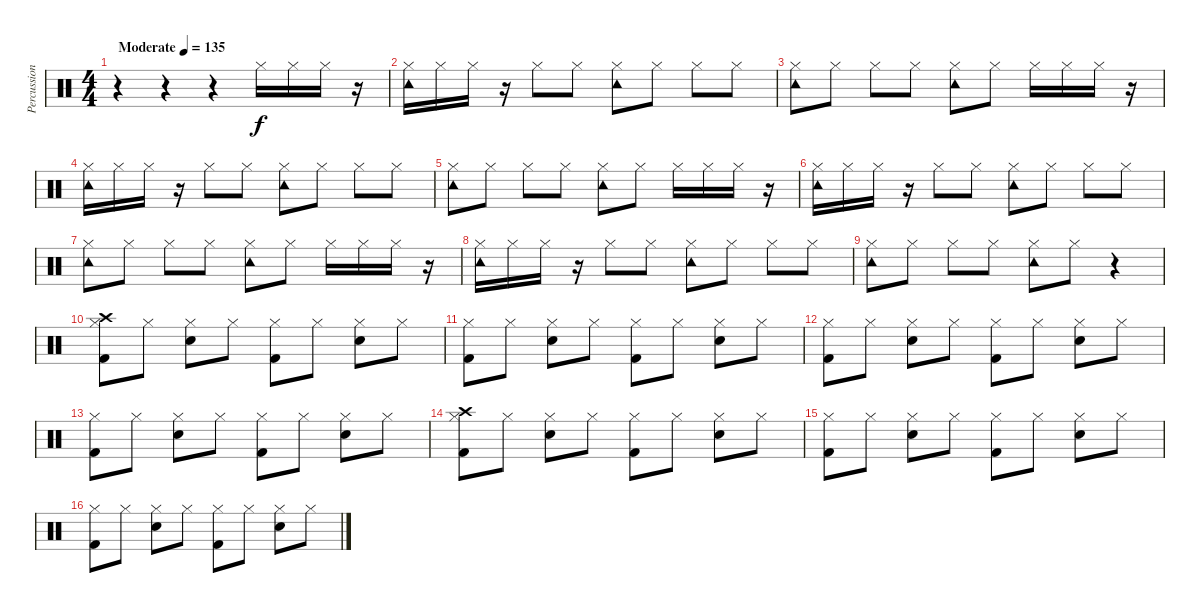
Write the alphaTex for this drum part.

\track ("Percussion" "Percussion") {instrument percussion}
\staff {score}
\articulation defaults
\ts (4 4)
\tempo (135 "Moderate")
\clef neutral
\ks c
r.4{dy f} r.4 r.4 "Hi-Hat (closed)".16 "Hi-Hat (closed)".16 "Hi-Hat (closed)".16 r.16 |
("Tambourine (hit)" "Hi-Hat (closed)").16 "Hi-Hat (closed)".16 "Hi-Hat (closed)".16 r.16 "Hi-Hat (closed)".8 "Hi-Hat (closed)".8 ("Tambourine (hit)" "Hi-Hat (closed)").8 "Hi-Hat (closed)".8 "Hi-Hat (closed)".8 "Hi-Hat (closed)".8 |
("Tambourine (hit)" "Hi-Hat (closed)").8 "Hi-Hat (closed)".8 "Hi-Hat (closed)".8 "Hi-Hat (closed)".8 ("Tambourine (hit)" "Hi-Hat (closed)").8 "Hi-Hat (closed)".8 "Hi-Hat (closed)".16 "Hi-Hat (closed)".16 "Hi-Hat (closed)".16 r.16 |
("Tambourine (hit)" "Hi-Hat (closed)").16 "Hi-Hat (closed)".16 "Hi-Hat (closed)".16 r.16 "Hi-Hat (closed)".8 "Hi-Hat (closed)".8 ("Tambourine (hit)" "Hi-Hat (closed)").8 "Hi-Hat (closed)".8 "Hi-Hat (closed)".8 "Hi-Hat (closed)".8 |
("Tambourine (hit)" "Hi-Hat (closed)").8 "Hi-Hat (closed)".8 "Hi-Hat (closed)".8 "Hi-Hat (closed)".8 ("Tambourine (hit)" "Hi-Hat (closed)").8 "Hi-Hat (closed)".8 "Hi-Hat (closed)".16 "Hi-Hat (closed)".16 "Hi-Hat (closed)".16 r.16 |
("Tambourine (hit)" "Hi-Hat (closed)").16 "Hi-Hat (closed)".16 "Hi-Hat (closed)".16 r.16 "Hi-Hat (closed)".8 "Hi-Hat (closed)".8 ("Tambourine (hit)" "Hi-Hat (closed)").8 "Hi-Hat (closed)".8 "Hi-Hat (closed)".8 "Hi-Hat (closed)".8 |
("Tambourine (hit)" "Hi-Hat (closed)").8 "Hi-Hat (closed)".8 "Hi-Hat (closed)".8 "Hi-Hat (closed)".8 ("Tambourine (hit)" "Hi-Hat (closed)").8 "Hi-Hat (closed)".8 "Hi-Hat (closed)".16 "Hi-Hat (closed)".16 "Hi-Hat (closed)".16 r.16 |
("Tambourine (hit)" "Hi-Hat (closed)").16 "Hi-Hat (closed)".16 "Hi-Hat (closed)".16 r.16 "Hi-Hat (closed)".8 "Hi-Hat (closed)".8 ("Tambourine (hit)" "Hi-Hat (closed)").8 "Hi-Hat (closed)".8 "Hi-Hat (closed)".8 "Hi-Hat (closed)".8 |
("Tambourine (hit)" "Hi-Hat (closed)").8 "Hi-Hat (closed)".8 "Hi-Hat (closed)".8 "Hi-Hat (closed)".8 ("Tambourine (hit)" "Hi-Hat (closed)").8 "Hi-Hat (closed)".8 r.4 |
("Crash high (hit)" "Hi-Hat (closed)" "Kick (hit) 2").8 "Hi-Hat (closed)".8 ("Hi-Hat (closed)" "Snare (hit) 2").8 "Hi-Hat (closed)".8 ("Hi-Hat (closed)" "Kick (hit) 2").8 "Hi-Hat (closed)".8 ("Hi-Hat (closed)" "Snare (hit) 2").8 "Hi-Hat (closed)".8 |
("Hi-Hat (closed)" "Kick (hit) 2").8 "Hi-Hat (closed)".8 ("Hi-Hat (closed)" "Snare (hit) 2").8 "Hi-Hat (closed)".8 ("Hi-Hat (closed)" "Kick (hit) 2").8 "Hi-Hat (closed)".8 ("Hi-Hat (closed)" "Snare (hit) 2").8 "Hi-Hat (closed)".8 |
("Hi-Hat (closed)" "Kick (hit) 2").8 "Hi-Hat (closed)".8 ("Hi-Hat (closed)" "Snare (hit) 2").8 "Hi-Hat (closed)".8 ("Hi-Hat (closed)" "Kick (hit) 2").8 "Hi-Hat (closed)".8 ("Hi-Hat (closed)" "Snare (hit) 2").8 "Hi-Hat (closed)".8 |
("Hi-Hat (closed)" "Kick (hit) 2").8 "Hi-Hat (closed)".8 ("Hi-Hat (closed)" "Snare (hit) 2").8 "Hi-Hat (closed)".8 ("Hi-Hat (closed)" "Kick (hit) 2").8 "Hi-Hat (closed)".8 ("Hi-Hat (closed)" "Snare (hit) 2").8 "Hi-Hat (closed)".8 |
("Crash high (hit)" "Hi-Hat (closed)" "Kick (hit) 2").8 "Hi-Hat (closed)".8 ("Hi-Hat (closed)" "Snare (hit) 2").8 "Hi-Hat (closed)".8 ("Hi-Hat (closed)" "Kick (hit) 2").8 "Hi-Hat (closed)".8 ("Hi-Hat (closed)" "Snare (hit) 2").8 "Hi-Hat (closed)".8 |
("Hi-Hat (closed)" "Kick (hit) 2").8 "Hi-Hat (closed)".8 ("Hi-Hat (closed)" "Snare (hit) 2").8 "Hi-Hat (closed)".8 ("Hi-Hat (closed)" "Kick (hit) 2").8 "Hi-Hat (closed)".8 ("Hi-Hat (closed)" "Snare (hit) 2").8 "Hi-Hat (closed)".8 |
("Hi-Hat (closed)" "Kick (hit) 2").8 "Hi-Hat (closed)".8 ("Hi-Hat (closed)" "Snare (hit) 2").8 "Hi-Hat (closed)".8 ("Hi-Hat (closed)" "Kick (hit) 2").8 "Hi-Hat (closed)".8 ("Hi-Hat (closed)" "Snare (hit) 2").8 "Hi-Hat (closed)".8
